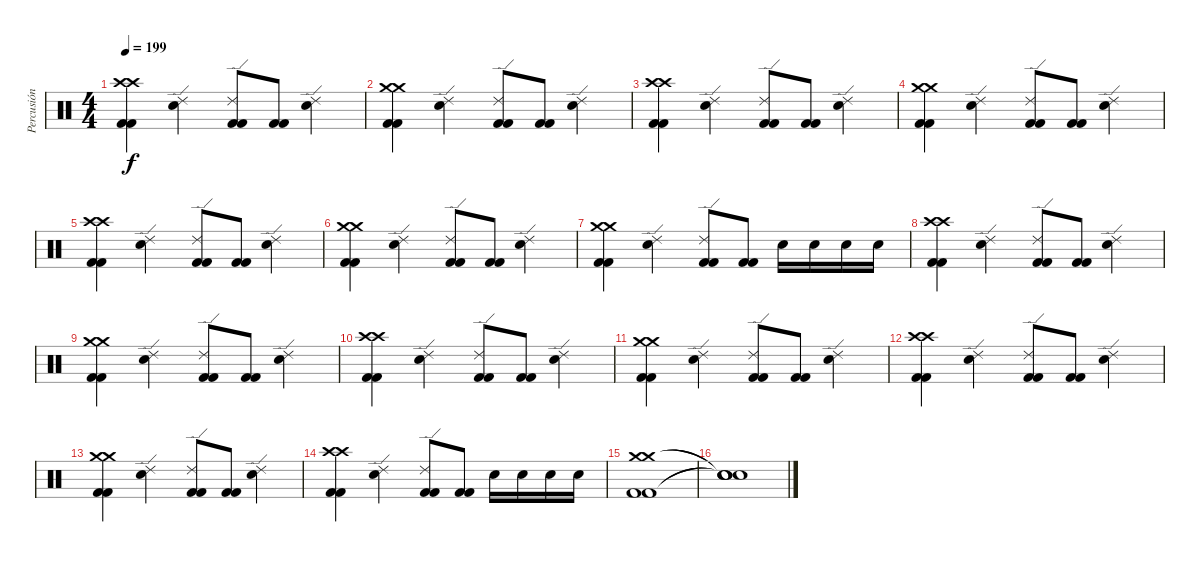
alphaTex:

\track ("Percusión" "Percusión") {instrument percussion}
\staff {score}
\articulation defaults
\ts (4 4)
\tempo 199
\clef neutral
\ks c
("Crash high (hit)" "Kick (hit) 2" "Kick (hit) 2" "Crash high (hit)").4{dy f} ("Ride (edge) 2" "Electric Snare (hit)").4 ("Ride (edge) 2" "Kick (hit) 2" "Kick (hit) 2").8 ("Kick (hit) 2" "Kick (hit) 2").8 ("Ride (edge) 2" "Electric Snare (hit)").4 |
("Crash medium (hit)" "Kick (hit) 2" "Kick (hit) 2" "Crash medium (hit)").4 ("Ride (edge) 2" "Electric Snare (hit)").4 ("Ride (edge) 2" "Kick (hit) 2" "Kick (hit) 2").8 ("Kick (hit) 2" "Kick (hit) 2").8 ("Ride (edge) 2" "Electric Snare (hit)").4 |
("Crash high (hit)" "Kick (hit) 2" "Kick (hit) 2" "Crash high (hit)").4 ("Ride (edge) 2" "Electric Snare (hit)").4 ("Ride (edge) 2" "Kick (hit) 2" "Kick (hit) 2").8 ("Kick (hit) 2" "Kick (hit) 2").8 ("Ride (edge) 2" "Electric Snare (hit)").4 |
("Crash medium (hit)" "Kick (hit) 2" "Kick (hit) 2" "Crash medium (hit)").4 ("Ride (edge) 2" "Electric Snare (hit)").4 ("Ride (edge) 2" "Kick (hit) 2" "Kick (hit) 2").8 ("Kick (hit) 2" "Kick (hit) 2").8 ("Ride (edge) 2" "Electric Snare (hit)").4 |
("Crash high (hit)" "Kick (hit) 2" "Kick (hit) 2" "Crash high (hit)").4 ("Ride (edge) 2" "Electric Snare (hit)").4 ("Ride (edge) 2" "Kick (hit) 2" "Kick (hit) 2").8 ("Kick (hit) 2" "Kick (hit) 2").8 ("Ride (edge) 2" "Electric Snare (hit)").4 |
("Crash medium (hit)" "Kick (hit) 2" "Kick (hit) 2" "Crash medium (hit)").4 ("Ride (edge) 2" "Electric Snare (hit)").4 ("Ride (edge) 2" "Kick (hit) 2" "Kick (hit) 2").8 ("Kick (hit) 2" "Kick (hit) 2").8 ("Ride (edge) 2" "Electric Snare (hit)").4 |
("Crash medium (hit)" "Kick (hit) 2" "Kick (hit) 2" "Crash medium (hit)").4 ("Ride (edge) 2" "Electric Snare (hit)").4 ("Ride (edge) 2" "Kick (hit) 2" "Kick (hit) 2").8 ("Kick (hit) 2" "Kick (hit) 2").8 "Electric Snare (hit)".16 "Electric Snare (hit)".16 "Electric Snare (hit)".16 "Electric Snare (hit)".16 |
("Crash high (hit)" "Kick (hit) 2" "Kick (hit) 2" "Crash high (hit)").4 ("Ride (edge) 2" "Electric Snare (hit)").4 ("Ride (edge) 2" "Kick (hit) 2" "Kick (hit) 2").8 ("Kick (hit) 2" "Kick (hit) 2").8 ("Ride (edge) 2" "Electric Snare (hit)").4 |
("Crash medium (hit)" "Kick (hit) 2" "Kick (hit) 2" "Crash medium (hit)").4 ("Ride (edge) 2" "Electric Snare (hit)").4 ("Ride (edge) 2" "Kick (hit) 2" "Kick (hit) 2").8 ("Kick (hit) 2" "Kick (hit) 2").8 ("Ride (edge) 2" "Electric Snare (hit)").4 |
("Crash high (hit)" "Kick (hit) 2" "Kick (hit) 2" "Crash high (hit)").4 ("Ride (edge) 2" "Electric Snare (hit)").4 ("Ride (edge) 2" "Kick (hit) 2" "Kick (hit) 2").8 ("Kick (hit) 2" "Kick (hit) 2").8 ("Ride (edge) 2" "Electric Snare (hit)").4 |
("Crash medium (hit)" "Kick (hit) 2" "Kick (hit) 2" "Crash medium (hit)").4 ("Ride (edge) 2" "Electric Snare (hit)").4 ("Ride (edge) 2" "Kick (hit) 2" "Kick (hit) 2").8 ("Kick (hit) 2" "Kick (hit) 2").8 ("Ride (edge) 2" "Electric Snare (hit)").4 |
("Crash high (hit)" "Kick (hit) 2" "Kick (hit) 2" "Crash high (hit)").4 ("Ride (edge) 2" "Electric Snare (hit)").4 ("Ride (edge) 2" "Kick (hit) 2" "Kick (hit) 2").8 ("Kick (hit) 2" "Kick (hit) 2").8 ("Ride (edge) 2" "Electric Snare (hit)").4 |
("Crash medium (hit)" "Kick (hit) 2" "Kick (hit) 2" "Crash medium (hit)").4 ("Ride (edge) 2" "Electric Snare (hit)").4 ("Ride (edge) 2" "Kick (hit) 2" "Kick (hit) 2").8 ("Kick (hit) 2" "Kick (hit) 2").8 ("Ride (edge) 2" "Electric Snare (hit)").4 |
("Crash high (hit)" "Kick (hit) 2" "Kick (hit) 2" "Crash high (hit)").4 ("Ride (edge) 2" "Electric Snare (hit)").4 ("Ride (edge) 2" "Kick (hit) 2" "Kick (hit) 2").8 ("Kick (hit) 2" "Kick (hit) 2").8 "Electric Snare (hit)".16 "Electric Snare (hit)".16 "Electric Snare (hit)".16 "Electric Snare (hit)".16 |
("Kick (hit) 2" "Kick (hit) 2" "Crash medium (hit)" "Crash medium (hit)").1 |
("Snare (hit)"{t} "Snare (hit)"{t} "Snare (hit)"{t} "Snare (hit)"{t}).1
